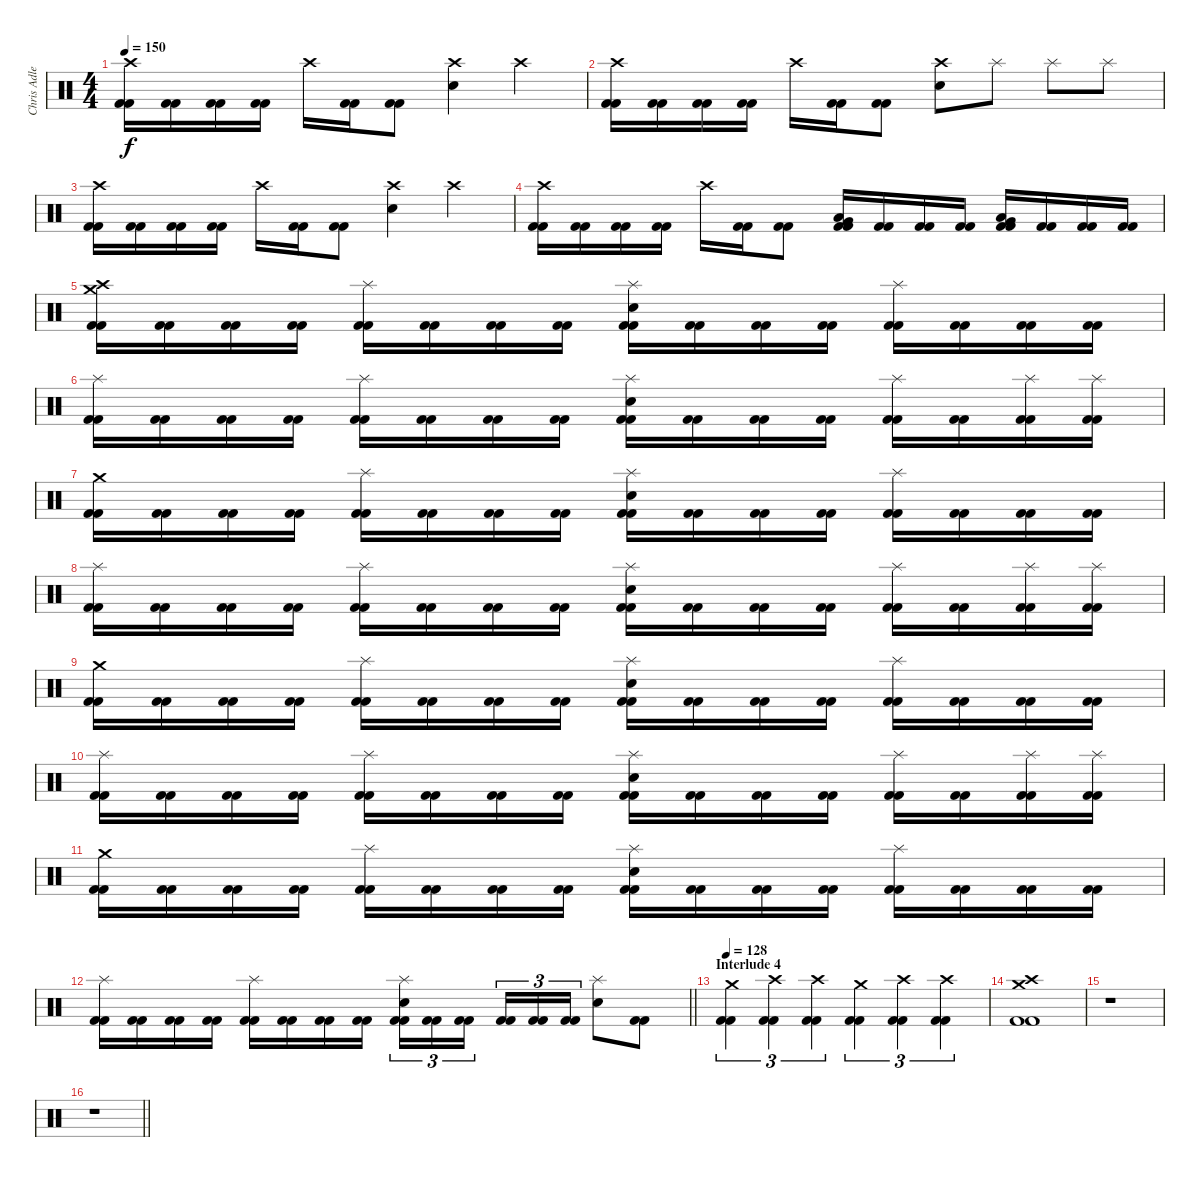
\track ("Chris Adler" "Chris Adle") {instrument percussion}
\staff {score}
\articulation defaults
\ts (4 4)
\tempo 150
\clef neutral
\ks c
("Crash high (hit)" "Kick (hit) 2" "Kick (hit) 2").16{dy f} ("Kick (hit) 2" "Kick (hit) 2").16 ("Kick (hit) 2" "Kick (hit) 2").16 ("Kick (hit) 2" "Kick (hit) 2").16 "Crash high (hit)".16 ("Kick (hit) 2" "Kick (hit) 2").16 ("Kick (hit) 2" "Kick (hit) 2").8 ("Crash high (hit)" "Electric Snare (hit)").4 "Crash high (hit)".4 |
("Crash high (hit)" "Kick (hit) 2" "Kick (hit) 2").16 ("Kick (hit) 2" "Kick (hit) 2").16 ("Kick (hit) 2" "Kick (hit) 2").16 ("Kick (hit) 2" "Kick (hit) 2").16 "Crash high (hit)".16 ("Kick (hit) 2" "Kick (hit) 2").16 ("Kick (hit) 2" "Kick (hit) 2").8 ("Crash high (hit)" "Electric Snare (hit)").8 "Splash (hit)".8 "Splash (hit)".8 "Splash (hit)".8 |
("Crash high (hit)" "Kick (hit) 2" "Kick (hit) 2").16 ("Kick (hit) 2" "Kick (hit) 2").16 ("Kick (hit) 2" "Kick (hit) 2").16 ("Kick (hit) 2" "Kick (hit) 2").16 "Crash high (hit)".16 ("Kick (hit) 2" "Kick (hit) 2").16 ("Kick (hit) 2" "Kick (hit) 2").8 ("Crash high (hit)" "Electric Snare (hit)").4 "Crash high (hit)".4 |
("Crash high (hit)" "Kick (hit) 2" "Kick (hit) 2").16 ("Kick (hit) 2" "Kick (hit) 2").16 ("Kick (hit) 2" "Kick (hit) 2").16 ("Kick (hit) 2" "Kick (hit) 2").16 "Crash high (hit)".16 ("Kick (hit) 2" "Kick (hit) 2").16 ("Kick (hit) 2" "Kick (hit) 2").8 ("Low Tom (hit)" "Very Low Tom (hit)" "Kick (hit) 2" "Kick (hit) 2").16 ("Kick (hit) 2" "Kick (hit) 2").16 ("Kick (hit) 2" "Kick (hit) 2").16 ("Kick (hit) 2" "Kick (hit) 2").16 ("Very Low Tom (hit)" "Low Floor Tom (hit)" "Kick (hit) 2" "Kick (hit) 2").16 ("Kick (hit) 2" "Kick (hit) 2").16 ("Kick (hit) 2" "Kick (hit) 2").16 ("Kick (hit) 2" "Kick (hit) 2").16 |
("Crash medium (hit)" "Crash high (hit)" "Kick (hit) 2" "Kick (hit) 2").16 ("Kick (hit) 2" "Kick (hit) 2").16 ("Kick (hit) 2" "Kick (hit) 2").16 ("Kick (hit) 2" "Kick (hit) 2").16 ("Splash (hit)" "Kick (hit) 2" "Kick (hit) 2").16 ("Kick (hit) 2" "Kick (hit) 2").16 ("Kick (hit) 2" "Kick (hit) 2").16 ("Kick (hit) 2" "Kick (hit) 2").16 ("Splash (hit)" "Electric Snare (hit)" "Kick (hit) 2" "Kick (hit) 2").16 ("Kick (hit) 2" "Kick (hit) 2").16 ("Kick (hit) 2" "Kick (hit) 2").16 ("Kick (hit) 2" "Kick (hit) 2").16 ("Splash (hit)" "Kick (hit) 2" "Kick (hit) 2").16 ("Kick (hit) 2" "Kick (hit) 2").16 ("Kick (hit) 2" "Kick (hit) 2").16 ("Kick (hit) 2" "Kick (hit) 2").16 |
("Splash (hit)" "Kick (hit) 2" "Kick (hit) 2").16 ("Kick (hit) 2" "Kick (hit) 2").16 ("Kick (hit) 2" "Kick (hit) 2").16 ("Kick (hit) 2" "Kick (hit) 2").16 ("Splash (hit)" "Kick (hit) 2" "Kick (hit) 2").16 ("Kick (hit) 2" "Kick (hit) 2").16 ("Kick (hit) 2" "Kick (hit) 2").16 ("Kick (hit) 2" "Kick (hit) 2").16 ("Splash (hit)" "Electric Snare (hit)" "Kick (hit) 2" "Kick (hit) 2").16 ("Kick (hit) 2" "Kick (hit) 2").16 ("Kick (hit) 2" "Kick (hit) 2").16 ("Kick (hit) 2" "Kick (hit) 2").16 ("Splash (hit)" "Kick (hit) 2" "Kick (hit) 2").16 ("Kick (hit) 2" "Kick (hit) 2").16 ("Splash (hit)" "Kick (hit) 2" "Kick (hit) 2").16 ("Splash (hit)" "Kick (hit) 2" "Kick (hit) 2").16 |
("Crash medium (hit)" "Kick (hit) 2" "Kick (hit) 2").16 ("Kick (hit) 2" "Kick (hit) 2").16 ("Kick (hit) 2" "Kick (hit) 2").16 ("Kick (hit) 2" "Kick (hit) 2").16 ("Splash (hit)" "Kick (hit) 2" "Kick (hit) 2").16 ("Kick (hit) 2" "Kick (hit) 2").16 ("Kick (hit) 2" "Kick (hit) 2").16 ("Kick (hit) 2" "Kick (hit) 2").16 ("Splash (hit)" "Electric Snare (hit)" "Kick (hit) 2" "Kick (hit) 2").16 ("Kick (hit) 2" "Kick (hit) 2").16 ("Kick (hit) 2" "Kick (hit) 2").16 ("Kick (hit) 2" "Kick (hit) 2").16 ("Splash (hit)" "Kick (hit) 2" "Kick (hit) 2").16 ("Kick (hit) 2" "Kick (hit) 2").16 ("Kick (hit) 2" "Kick (hit) 2").16 ("Kick (hit) 2" "Kick (hit) 2").16 |
("Splash (hit)" "Kick (hit) 2" "Kick (hit) 2").16 ("Kick (hit) 2" "Kick (hit) 2").16 ("Kick (hit) 2" "Kick (hit) 2").16 ("Kick (hit) 2" "Kick (hit) 2").16 ("Splash (hit)" "Kick (hit) 2" "Kick (hit) 2").16 ("Kick (hit) 2" "Kick (hit) 2").16 ("Kick (hit) 2" "Kick (hit) 2").16 ("Kick (hit) 2" "Kick (hit) 2").16 ("Splash (hit)" "Electric Snare (hit)" "Kick (hit) 2" "Kick (hit) 2").16 ("Kick (hit) 2" "Kick (hit) 2").16 ("Kick (hit) 2" "Kick (hit) 2").16 ("Kick (hit) 2" "Kick (hit) 2").16 ("Splash (hit)" "Kick (hit) 2" "Kick (hit) 2").16 ("Kick (hit) 2" "Kick (hit) 2").16 ("Splash (hit)" "Kick (hit) 2" "Kick (hit) 2").16 ("Splash (hit)" "Kick (hit) 2" "Kick (hit) 2").16 |
("Crash medium (hit)" "Kick (hit) 2" "Kick (hit) 2").16 ("Kick (hit) 2" "Kick (hit) 2").16 ("Kick (hit) 2" "Kick (hit) 2").16 ("Kick (hit) 2" "Kick (hit) 2").16 ("Splash (hit)" "Kick (hit) 2" "Kick (hit) 2").16 ("Kick (hit) 2" "Kick (hit) 2").16 ("Kick (hit) 2" "Kick (hit) 2").16 ("Kick (hit) 2" "Kick (hit) 2").16 ("Splash (hit)" "Electric Snare (hit)" "Kick (hit) 2" "Kick (hit) 2").16 ("Kick (hit) 2" "Kick (hit) 2").16 ("Kick (hit) 2" "Kick (hit) 2").16 ("Kick (hit) 2" "Kick (hit) 2").16 ("Splash (hit)" "Kick (hit) 2" "Kick (hit) 2").16 ("Kick (hit) 2" "Kick (hit) 2").16 ("Kick (hit) 2" "Kick (hit) 2").16 ("Kick (hit) 2" "Kick (hit) 2").16 |
("Splash (hit)" "Kick (hit) 2" "Kick (hit) 2").16 ("Kick (hit) 2" "Kick (hit) 2").16 ("Kick (hit) 2" "Kick (hit) 2").16 ("Kick (hit) 2" "Kick (hit) 2").16 ("Splash (hit)" "Kick (hit) 2" "Kick (hit) 2").16 ("Kick (hit) 2" "Kick (hit) 2").16 ("Kick (hit) 2" "Kick (hit) 2").16 ("Kick (hit) 2" "Kick (hit) 2").16 ("Splash (hit)" "Electric Snare (hit)" "Kick (hit) 2" "Kick (hit) 2").16 ("Kick (hit) 2" "Kick (hit) 2").16 ("Kick (hit) 2" "Kick (hit) 2").16 ("Kick (hit) 2" "Kick (hit) 2").16 ("Splash (hit)" "Kick (hit) 2" "Kick (hit) 2").16 ("Kick (hit) 2" "Kick (hit) 2").16 ("Splash (hit)" "Kick (hit) 2" "Kick (hit) 2").16 ("Splash (hit)" "Kick (hit) 2" "Kick (hit) 2").16 |
("Crash medium (hit)" "Kick (hit) 2" "Kick (hit) 2").16 ("Kick (hit) 2" "Kick (hit) 2").16 ("Kick (hit) 2" "Kick (hit) 2").16 ("Kick (hit) 2" "Kick (hit) 2").16 ("Splash (hit)" "Kick (hit) 2" "Kick (hit) 2").16 ("Kick (hit) 2" "Kick (hit) 2").16 ("Kick (hit) 2" "Kick (hit) 2").16 ("Kick (hit) 2" "Kick (hit) 2").16 ("Splash (hit)" "Electric Snare (hit)" "Kick (hit) 2" "Kick (hit) 2").16 ("Kick (hit) 2" "Kick (hit) 2").16 ("Kick (hit) 2" "Kick (hit) 2").16 ("Kick (hit) 2" "Kick (hit) 2").16 ("Splash (hit)" "Kick (hit) 2" "Kick (hit) 2").16 ("Kick (hit) 2" "Kick (hit) 2").16 ("Kick (hit) 2" "Kick (hit) 2").16 ("Kick (hit) 2" "Kick (hit) 2").16 |
\barLineRight lightlight
("Splash (hit)" "Kick (hit) 2" "Kick (hit) 2").16 ("Kick (hit) 2" "Kick (hit) 2").16 ("Kick (hit) 2" "Kick (hit) 2").16 ("Kick (hit) 2" "Kick (hit) 2").16 ("Splash (hit)" "Kick (hit) 2" "Kick (hit) 2").16 ("Kick (hit) 2" "Kick (hit) 2").16 ("Kick (hit) 2" "Kick (hit) 2").16 ("Kick (hit) 2" "Kick (hit) 2").16 ("Splash (hit)" "Electric Snare (hit)" "Kick (hit) 2" "Kick (hit) 2").16{tu (3 2)} ("Kick (hit) 2" "Kick (hit) 2").16{tu (3 2)} ("Kick (hit) 2" "Kick (hit) 2").16{tu (3 2) beam splitsecondary} ("Kick (hit) 2" "Kick (hit) 2").16{tu (3 2)} ("Kick (hit) 2" "Kick (hit) 2").16{tu (3 2)} ("Kick (hit) 2" "Kick (hit) 2").16{tu (3 2)} ("Splash (hit)" "Electric Snare (hit)").8 ("Kick (hit) 2" "Kick (hit) 2").8 |
\section ("" "Interlude 4")
\tempo 128
("Crash medium (hit)" "Kick (hit) 2" "Kick (hit) 2").4{tu (3 2)} ("Crash high (hit)" "Kick (hit) 2" "Kick (hit) 2").4{tu (3 2)} ("Crash high (hit)" "Kick (hit) 2" "Kick (hit) 2").4{tu (3 2)} ("Crash medium (hit)" "Kick (hit) 2" "Kick (hit) 2").4{tu (3 2)} ("Crash high (hit)" "Kick (hit) 2" "Kick (hit) 2").4{tu (3 2)} ("Crash high (hit)" "Kick (hit) 2" "Kick (hit) 2").4{tu (3 2)} |
("Crash medium (hit)" "Crash high (hit)" "Kick (hit) 2" "Kick (hit) 2").1 |
r.1 |
\barLineRight lightlight
r.1
